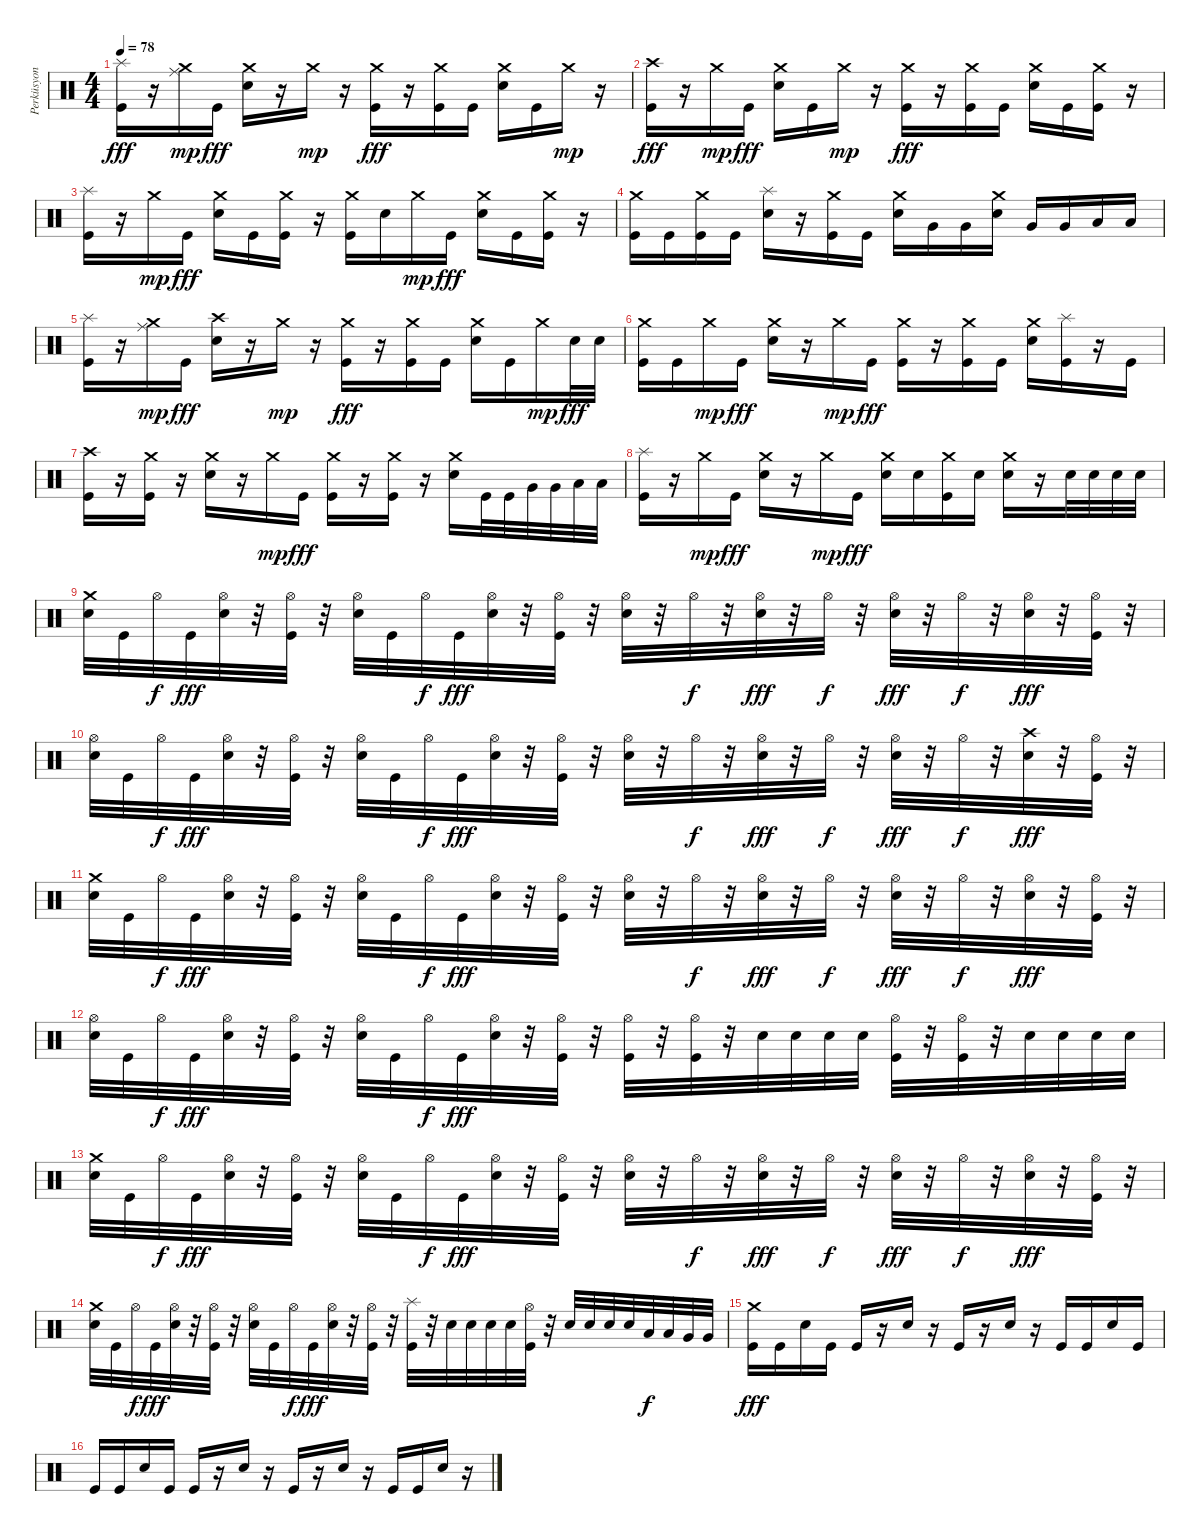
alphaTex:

\track ("Perküsyon" "Perküsyon") {instrument percussion}
\staff {score}
\articulation defaults
\ts (4 4)
\tempo 78
\clef neutral
\ks c
("Kick (hit)" "Splash (hit)").16{dy fff} r.16 ("Crash medium (hit)" "Ride (middle)").16{dy mp} "Kick (hit)".16{dy fff} ("Crash medium (hit)" "Electric Snare (hit)").16 r.16 "Crash medium (hit)".16{dy mp} r.16 ("Crash medium (hit)" "Kick (hit)").16{dy fff} r.16 ("Crash medium (hit)" "Kick (hit)").16 "Kick (hit)".16 ("Crash medium (hit)" "Electric Snare (hit)").16 "Kick (hit)".16 "Crash medium (hit)".16{dy mp} r.16 |
("Kick (hit)" "Crash high (hit)").16{dy fff} r.16 "Crash medium (hit)".16{dy mp} "Kick (hit)".16{dy fff} ("Crash medium (hit)" "Electric Snare (hit)").16 "Kick (hit)".16 "Crash medium (hit)".16{dy mp} r.16 ("Crash medium (hit)" "Kick (hit)").16{dy fff} r.16 ("Crash medium (hit)" "Kick (hit)").16 "Kick (hit)".16 ("Crash medium (hit)" "Electric Snare (hit)").16 "Kick (hit)".16 ("Crash medium (hit)" "Kick (hit)").16 r.16 |
("Kick (hit)" "Splash (hit)").16 r.16 "Crash medium (hit)".16{dy mp} "Kick (hit)".16{dy fff} ("Crash medium (hit)" "Electric Snare (hit)").16 "Kick (hit)".16 ("Crash medium (hit)" "Kick (hit)").16 r.16 ("Crash medium (hit)" "Kick (hit)").16 "Electric Snare (hit)".16 "Crash medium (hit)".16{dy mp} "Kick (hit)".16{dy fff} ("Crash medium (hit)" "Electric Snare (hit)").16 "Kick (hit)".16 ("Crash medium (hit)" "Kick (hit)").16 r.16 |
("Crash medium (hit)" "Kick (hit)").16 "Kick (hit)".16 ("Crash medium (hit)" "Kick (hit)").16 "Kick (hit)".16 ("Electric Snare (hit)" "Splash (hit)").16 r.16 ("Crash medium (hit)" "Kick (hit)").16 "Kick (hit)".16 ("Crash medium (hit)" "Electric Snare (hit)").16 "Very Low Tom (hit)".16 "Very Low Tom (hit)".16 ("Crash medium (hit)" "Electric Snare (hit)").16 "Very Low Tom (hit)".16 "Very Low Tom (hit)".16 "Low Floor Tom (hit)".16 "Low Floor Tom (hit)".16 |
("Kick (hit)" "Splash (hit)").16 r.16 ("Crash medium (hit)" "Ride (middle)").16{dy mp} "Kick (hit)".16{dy fff} ("Electric Snare (hit)" "Crash high (hit)").16 r.16 "Crash medium (hit)".16{dy mp} r.16 ("Crash medium (hit)" "Kick (hit)").16{dy fff} r.16 ("Crash medium (hit)" "Kick (hit)").16 "Kick (hit)".16 ("Crash medium (hit)" "Electric Snare (hit)").16 "Kick (hit)".16 "Crash medium (hit)".16{dy mp} "Electric Snare (hit)".32{dy fff} "Electric Snare (hit)".32 |
("Crash medium (hit)" "Kick (hit)").16 "Kick (hit)".16 "Crash medium (hit)".16{dy mp} "Kick (hit)".16{dy fff} ("Crash medium (hit)" "Electric Snare (hit)").16 r.16 "Crash medium (hit)".16{dy mp} "Kick (hit)".16{dy fff} ("Crash medium (hit)" "Kick (hit)").16 r.16 ("Crash medium (hit)" "Kick (hit)").16 "Kick (hit)".16 ("Crash medium (hit)" "Electric Snare (hit)").16 ("Kick (hit)" "Splash (hit)").16 r.16 "Kick (hit)".16 |
("Kick (hit)" "Crash high (hit)").16 r.16 ("Crash medium (hit)" "Kick (hit)").16 r.16 ("Crash medium (hit)" "Electric Snare (hit)").16 r.16 "Crash medium (hit)".16{dy mp} "Kick (hit)".16{dy fff} ("Crash medium (hit)" "Kick (hit)").16 r.16 ("Crash medium (hit)" "Kick (hit)").16 r.16 ("Crash medium (hit)" "Electric Snare (hit)").16 "Kick (hit)".32 "Kick (hit)".32 "Very Low Tom (hit)".32 "Very Low Tom (hit)".32 "Low Floor Tom (hit)".32 "Low Floor Tom (hit)".32 |
("Kick (hit)" "Splash (hit)").16 r.16 "Crash medium (hit)".16{dy mp} "Kick (hit)".16{dy fff} ("Crash medium (hit)" "Electric Snare (hit)").16 r.16 "Crash medium (hit)".16{dy mp} "Kick (hit)".16{dy fff} ("Crash medium (hit)" "Electric Snare (hit)").16 "Electric Snare (hit)".16 ("Crash medium (hit)" "Kick (hit)").16 "Electric Snare (hit)".16 ("Crash medium (hit)" "Electric Snare (hit)").16 r.16 "Electric Snare (hit)".32 "Electric Snare (hit)".32 "Electric Snare (hit)".32 "Electric Snare (hit)".32 |
("Electric Snare (hit)" "Crash medium (hit)").32 "Kick (hit)".32 "Hi-Hat (open)".32{dy f} "Kick (hit)".32{dy fff} ("Hi-Hat (open)" "Electric Snare (hit)").32 r.32 ("Hi-Hat (open)" "Kick (hit)").32 r.32 ("Hi-Hat (open)" "Electric Snare (hit)").32 "Kick (hit)".32 "Hi-Hat (open)".32{dy f} "Kick (hit)".32{dy fff} ("Hi-Hat (open)" "Electric Snare (hit)").32 r.32 ("Hi-Hat (open)" "Kick (hit)").32 r.32 ("Hi-Hat (open)" "Electric Snare (hit)").32 r.32 "Hi-Hat (open)".32{dy f} r.32 ("Hi-Hat (open)" "Electric Snare (hit)").32{dy fff} r.32 "Hi-Hat (open)".32{dy f} r.32 ("Hi-Hat (open)" "Electric Snare (hit)").32{dy fff} r.32 "Hi-Hat (open)".32{dy f} r.32 ("Hi-Hat (open)" "Electric Snare (hit)").32{dy fff} r.32 ("Hi-Hat (open)" "Kick (hit)").32 r.32 |
("Hi-Hat (open)" "Electric Snare (hit)").32 "Kick (hit)".32 "Hi-Hat (open)".32{dy f} "Kick (hit)".32{dy fff} ("Hi-Hat (open)" "Electric Snare (hit)").32 r.32 ("Hi-Hat (open)" "Kick (hit)").32 r.32 ("Hi-Hat (open)" "Electric Snare (hit)").32 "Kick (hit)".32 "Hi-Hat (open)".32{dy f} "Kick (hit)".32{dy fff} ("Hi-Hat (open)" "Electric Snare (hit)").32 r.32 ("Hi-Hat (open)" "Kick (hit)").32 r.32 ("Hi-Hat (open)" "Electric Snare (hit)").32 r.32 "Hi-Hat (open)".32{dy f} r.32 ("Hi-Hat (open)" "Electric Snare (hit)").32{dy fff} r.32 "Hi-Hat (open)".32{dy f} r.32 ("Hi-Hat (open)" "Electric Snare (hit)").32{dy fff} r.32 "Hi-Hat (open)".32{dy f} r.32 ("Electric Snare (hit)" "Crash high (hit)").32{dy fff} r.32 ("Hi-Hat (open)" "Kick (hit)").32 r.32 |
("Electric Snare (hit)" "Crash medium (hit)").32 "Kick (hit)".32 "Hi-Hat (open)".32{dy f} "Kick (hit)".32{dy fff} ("Hi-Hat (open)" "Electric Snare (hit)").32 r.32 ("Hi-Hat (open)" "Kick (hit)").32 r.32 ("Hi-Hat (open)" "Electric Snare (hit)").32 "Kick (hit)".32 "Hi-Hat (open)".32{dy f} "Kick (hit)".32{dy fff} ("Hi-Hat (open)" "Electric Snare (hit)").32 r.32 ("Hi-Hat (open)" "Kick (hit)").32 r.32 ("Hi-Hat (open)" "Electric Snare (hit)").32 r.32 "Hi-Hat (open)".32{dy f} r.32 ("Hi-Hat (open)" "Electric Snare (hit)").32{dy fff} r.32 "Hi-Hat (open)".32{dy f} r.32 ("Hi-Hat (open)" "Electric Snare (hit)").32{dy fff} r.32 "Hi-Hat (open)".32{dy f} r.32 ("Hi-Hat (open)" "Electric Snare (hit)").32{dy fff} r.32 ("Hi-Hat (open)" "Kick (hit)").32 r.32 |
("Hi-Hat (open)" "Electric Snare (hit)").32 "Kick (hit)".32 "Hi-Hat (open)".32{dy f} "Kick (hit)".32{dy fff} ("Hi-Hat (open)" "Electric Snare (hit)").32 r.32 ("Hi-Hat (open)" "Kick (hit)").32 r.32 ("Hi-Hat (open)" "Electric Snare (hit)").32 "Kick (hit)".32 "Hi-Hat (open)".32{dy f} "Kick (hit)".32{dy fff} ("Hi-Hat (open)" "Electric Snare (hit)").32 r.32 ("Hi-Hat (open)" "Kick (hit)").32 r.32 ("Hi-Hat (open)" "Kick (hit)").32 r.32 ("Hi-Hat (open)" "Kick (hit)").32 r.32 "Electric Snare (hit)".32 "Electric Snare (hit)".32 "Electric Snare (hit)".32 "Electric Snare (hit)".32 ("Hi-Hat (open)" "Kick (hit)").32 r.32 ("Hi-Hat (open)" "Kick (hit)").32 r.32 "Electric Snare (hit)".32 "Electric Snare (hit)".32 "Electric Snare (hit)".32 "Electric Snare (hit)".32 |
("Electric Snare (hit)" "Crash medium (hit)").32 "Kick (hit)".32 "Hi-Hat (open)".32{dy f} "Kick (hit)".32{dy fff} ("Hi-Hat (open)" "Electric Snare (hit)").32 r.32 ("Hi-Hat (open)" "Kick (hit)").32 r.32 ("Hi-Hat (open)" "Electric Snare (hit)").32 "Kick (hit)".32 "Hi-Hat (open)".32{dy f} "Kick (hit)".32{dy fff} ("Hi-Hat (open)" "Electric Snare (hit)").32 r.32 ("Hi-Hat (open)" "Kick (hit)").32 r.32 ("Hi-Hat (open)" "Electric Snare (hit)").32 r.32 "Hi-Hat (open)".32{dy f} r.32 ("Hi-Hat (open)" "Electric Snare (hit)").32{dy fff} r.32 "Hi-Hat (open)".32{dy f} r.32 ("Hi-Hat (open)" "Electric Snare (hit)").32{dy fff} r.32 "Hi-Hat (open)".32{dy f} r.32 ("Hi-Hat (open)" "Electric Snare (hit)").32{dy fff} r.32 ("Hi-Hat (open)" "Kick (hit)").32 r.32 |
("Electric Snare (hit)" "Crash medium (hit)").32 "Kick (hit)".32 "Hi-Hat (open)".32{dy f} "Kick (hit)".32{dy fff} ("Hi-Hat (open)" "Electric Snare (hit)").32 r.32 ("Hi-Hat (open)" "Kick (hit)").32 r.32 ("Hi-Hat (open)" "Electric Snare (hit)").32 "Kick (hit)".32 "Hi-Hat (open)".32{dy f} "Kick (hit)".32{dy fff} ("Hi-Hat (open)" "Electric Snare (hit)").32 r.32 ("Hi-Hat (open)" "Kick (hit)").32 r.32 ("Splash (hit)" "Kick (hit)").32 r.32 "Electric Snare (hit)".32 "Electric Snare (hit)".32 "Electric Snare (hit)".32 "Electric Snare (hit)".32 ("Hi-Hat (open)" "Kick (hit)").32 r.32 "Electric Snare (hit)".32 "Electric Snare (hit)".32 "Electric Snare (hit)".32 "Electric Snare (hit)".32 "Low Tom (hit)".32{dy f} "Low Tom (hit)".32 "Very Low Tom (hit)".32 "Very Low Tom (hit)".32 |
("Kick (hit)" "Crash medium (hit)").16{dy fff} "Kick (hit)".16 "Electric Snare (hit)".16 "Kick (hit)".16 "Kick (hit)".16 r.16 "Electric Snare (hit)".16 r.16 "Kick (hit)".16 r.16 "Electric Snare (hit)".16 r.16 "Kick (hit)".16 "Kick (hit)".16 "Electric Snare (hit)".16 "Kick (hit)".16 |
"Kick (hit)".16 "Kick (hit)".16 "Electric Snare (hit)".16 "Kick (hit)".16 "Kick (hit)".16 r.16 "Electric Snare (hit)".16 r.16 "Kick (hit)".16 r.16 "Electric Snare (hit)".16 r.16 "Kick (hit)".16 "Kick (hit)".16 "Electric Snare (hit)".16 r.16
